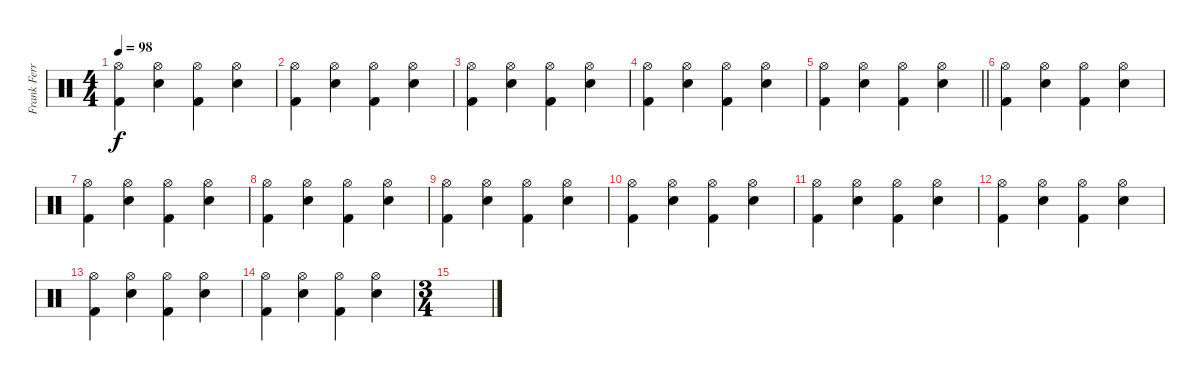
\track ("Frank Ferrer" "Frank Ferr") {instrument percussion}
\staff {score}
\articulation defaults
\ts (4 4)
\tempo 98
\clef neutral
\ks c
("Hi-Hat (open)" "Kick (hit) 2").4{dy f} ("Hi-Hat (open)" "Snare (hit) 2").4 ("Hi-Hat (open)" "Kick (hit) 2").4 ("Hi-Hat (open)" "Snare (hit) 2").4 |
("Hi-Hat (open)" "Kick (hit) 2").4 ("Hi-Hat (open)" "Snare (hit) 2").4 ("Hi-Hat (open)" "Kick (hit) 2").4 ("Hi-Hat (open)" "Snare (hit) 2").4 |
("Hi-Hat (open)" "Kick (hit) 2").4 ("Hi-Hat (open)" "Snare (hit) 2").4 ("Hi-Hat (open)" "Kick (hit) 2").4 ("Hi-Hat (open)" "Snare (hit) 2").4 |
("Hi-Hat (open)" "Kick (hit) 2").4 ("Hi-Hat (open)" "Snare (hit) 2").4 ("Hi-Hat (open)" "Kick (hit) 2").4 ("Hi-Hat (open)" "Snare (hit) 2").4 |
\barLineRight lightlight
("Hi-Hat (open)" "Kick (hit) 2").4 ("Hi-Hat (open)" "Snare (hit) 2").4 ("Hi-Hat (open)" "Kick (hit) 2").4 ("Hi-Hat (open)" "Snare (hit) 2").4 |
("Hi-Hat (open)" "Kick (hit) 2").4 ("Hi-Hat (open)" "Snare (hit) 2").4 ("Hi-Hat (open)" "Kick (hit) 2").4 ("Hi-Hat (open)" "Snare (hit) 2").4 |
("Hi-Hat (open)" "Kick (hit) 2").4 ("Hi-Hat (open)" "Snare (hit) 2").4 ("Hi-Hat (open)" "Kick (hit) 2").4 ("Hi-Hat (open)" "Snare (hit) 2").4 |
("Hi-Hat (open)" "Kick (hit) 2").4 ("Hi-Hat (open)" "Snare (hit) 2").4 ("Hi-Hat (open)" "Kick (hit) 2").4 ("Hi-Hat (open)" "Snare (hit) 2").4 |
("Hi-Hat (open)" "Kick (hit) 2").4 ("Hi-Hat (open)" "Snare (hit) 2").4 ("Hi-Hat (open)" "Kick (hit) 2").4 ("Hi-Hat (open)" "Snare (hit) 2").4 |
("Hi-Hat (open)" "Kick (hit) 2").4 ("Hi-Hat (open)" "Snare (hit) 2").4 ("Hi-Hat (open)" "Kick (hit) 2").4 ("Hi-Hat (open)" "Snare (hit) 2").4 |
("Hi-Hat (open)" "Kick (hit) 2").4 ("Hi-Hat (open)" "Snare (hit) 2").4 ("Hi-Hat (open)" "Kick (hit) 2").4 ("Hi-Hat (open)" "Snare (hit) 2").4 |
("Hi-Hat (open)" "Kick (hit) 2").4 ("Hi-Hat (open)" "Snare (hit) 2").4 ("Hi-Hat (open)" "Kick (hit) 2").4 ("Hi-Hat (open)" "Snare (hit) 2").4 |
("Hi-Hat (open)" "Kick (hit) 2").4 ("Hi-Hat (open)" "Snare (hit) 2").4 ("Hi-Hat (open)" "Kick (hit) 2").4 ("Hi-Hat (open)" "Snare (hit) 2").4 |
("Hi-Hat (open)" "Kick (hit) 2").4 ("Hi-Hat (open)" "Snare (hit) 2").4 ("Hi-Hat (open)" "Kick (hit) 2").4 ("Hi-Hat (open)" "Snare (hit) 2").4 |
\ts (3 4)
